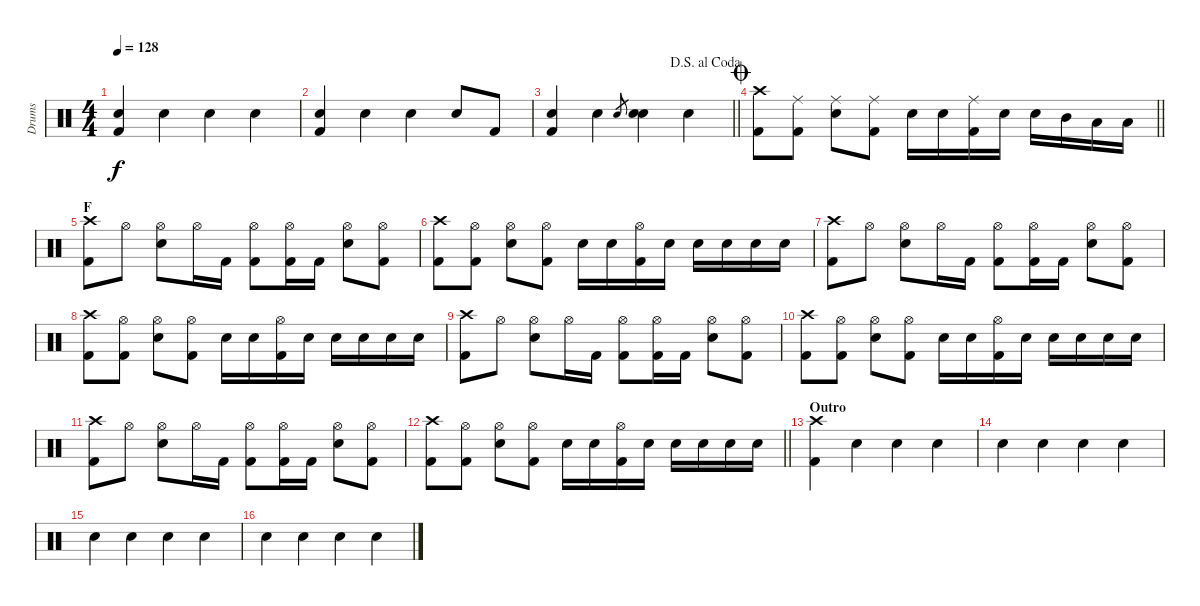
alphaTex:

\track ("Drums" "Drums") {instrument percussion}
\staff {score}
\articulation defaults
\ts (4 4)
\tempo 128
\clef neutral
\ks c
("Metronome (bell)" "Kick (hit) 2").4{dy f} "Metronome (bell)".4 "Metronome (bell)".4 "Metronome (bell)".4 |
("Metronome (bell)" "Kick (hit) 2").4 "Metronome (bell)".4 "Metronome (bell)".4 "Metronome (bell)".8 "Kick (hit) 2".8 |
\jump dalsegnoalcoda
\barLineRight lightlight
("Metronome (bell)" "Kick (hit) 2").4 "Metronome (bell)".4 "Snare (hit) 2".8{gr} ("Metronome (bell)" "Snare (hit) 2").4 "Metronome (bell)".4 |
\jump coda
\barLineRight lightlight
("Crash high (hit)" "Kick (hit) 2").8 ("Ride (middle)" "Kick (hit) 2").8 ("Ride (middle)" "Snare (hit) 2").8 ("Ride (middle)" "Kick (hit) 2").8 "Snare (hit) 2".16 "Snare (hit) 2".16 ("Ride (middle)" "Kick (hit) 2").16 "Snare (hit) 2".16 "Snare (hit) 2".16 "Mid Tom (hit)".16 "Low Tom (hit)".16 "Low Tom (hit)".16 |
\section ("" "F")
("Crash high (hit)" "Kick (hit) 2").8 "Hi-Hat (open)".8 ("Hi-Hat (open)" "Snare (hit) 2").8 "Hi-Hat (open)".16 "Kick (hit) 2".16 ("Hi-Hat (open)" "Kick (hit) 2").8 ("Hi-Hat (open)" "Kick (hit) 2").16 "Kick (hit) 2".16 ("Hi-Hat (open)" "Snare (hit) 2").8 ("Hi-Hat (open)" "Kick (hit) 2").8 |
("Crash high (hit)" "Kick (hit) 2").8 ("Hi-Hat (open)" "Kick (hit) 2").8 ("Hi-Hat (open)" "Snare (hit) 2").8 ("Hi-Hat (open)" "Kick (hit) 2").8 "Snare (hit) 2".16 "Snare (hit) 2".16 ("Hi-Hat (open)" "Kick (hit) 2").16 "Snare (hit) 2".16 "Snare (hit) 2".16 "Snare (hit) 2".16 "Snare (hit) 2".16 "Snare (hit) 2".16 |
("Crash high (hit)" "Kick (hit) 2").8 "Hi-Hat (open)".8 ("Hi-Hat (open)" "Snare (hit) 2").8 "Hi-Hat (open)".16 "Kick (hit) 2".16 ("Hi-Hat (open)" "Kick (hit) 2").8 ("Hi-Hat (open)" "Kick (hit) 2").16 "Kick (hit) 2".16 ("Hi-Hat (open)" "Snare (hit) 2").8 ("Hi-Hat (open)" "Kick (hit) 2").8 |
("Crash high (hit)" "Kick (hit) 2").8 ("Hi-Hat (open)" "Kick (hit) 2").8 ("Hi-Hat (open)" "Snare (hit) 2").8 ("Hi-Hat (open)" "Kick (hit) 2").8 "Snare (hit) 2".16 "Snare (hit) 2".16 ("Hi-Hat (open)" "Kick (hit) 2").16 "Snare (hit) 2".16 "Snare (hit) 2".16 "Snare (hit) 2".16 "Snare (hit) 2".16 "Snare (hit) 2".16 |
("Crash high (hit)" "Kick (hit) 2").8 "Hi-Hat (open)".8 ("Hi-Hat (open)" "Snare (hit) 2").8 "Hi-Hat (open)".16 "Kick (hit) 2".16 ("Hi-Hat (open)" "Kick (hit) 2").8 ("Hi-Hat (open)" "Kick (hit) 2").16 "Kick (hit) 2".16 ("Hi-Hat (open)" "Snare (hit) 2").8 ("Hi-Hat (open)" "Kick (hit) 2").8 |
("Crash high (hit)" "Kick (hit) 2").8 ("Hi-Hat (open)" "Kick (hit) 2").8 ("Hi-Hat (open)" "Snare (hit) 2").8 ("Hi-Hat (open)" "Kick (hit) 2").8 "Snare (hit) 2".16 "Snare (hit) 2".16 ("Hi-Hat (open)" "Kick (hit) 2").16 "Snare (hit) 2".16 "Snare (hit) 2".16 "Snare (hit) 2".16 "Snare (hit) 2".16 "Snare (hit) 2".16 |
("Crash high (hit)" "Kick (hit) 2").8 "Hi-Hat (open)".8 ("Hi-Hat (open)" "Snare (hit) 2").8 "Hi-Hat (open)".16 "Kick (hit) 2".16 ("Hi-Hat (open)" "Kick (hit) 2").8 ("Hi-Hat (open)" "Kick (hit) 2").16 "Kick (hit) 2".16 ("Hi-Hat (open)" "Snare (hit) 2").8 ("Hi-Hat (open)" "Kick (hit) 2").8 |
\barLineRight lightlight
("Crash high (hit)" "Kick (hit) 2").8 ("Hi-Hat (open)" "Kick (hit) 2").8 ("Hi-Hat (open)" "Snare (hit) 2").8 ("Hi-Hat (open)" "Kick (hit) 2").8 "Snare (hit) 2".16 "Snare (hit) 2".16 ("Hi-Hat (open)" "Kick (hit) 2").16 "Snare (hit) 2".16 "Snare (hit) 2".16 "Snare (hit) 2".16 "Snare (hit) 2".16 "Snare (hit) 2".16 |
\section ("" "Outro")
("Crash high (hit)" "Kick (hit) 2").4 "Metronome (bell)".4 "Metronome (bell)".4 "Metronome (bell)".4 |
"Metronome (bell)".4 "Metronome (bell)".4 "Metronome (bell)".4 "Metronome (bell)".4 |
"Metronome (bell)".4 "Metronome (bell)".4 "Metronome (bell)".4 "Metronome (bell)".4 |
"Metronome (bell)".4 "Metronome (bell)".4 "Metronome (bell)".4 "Metronome (bell)".4
